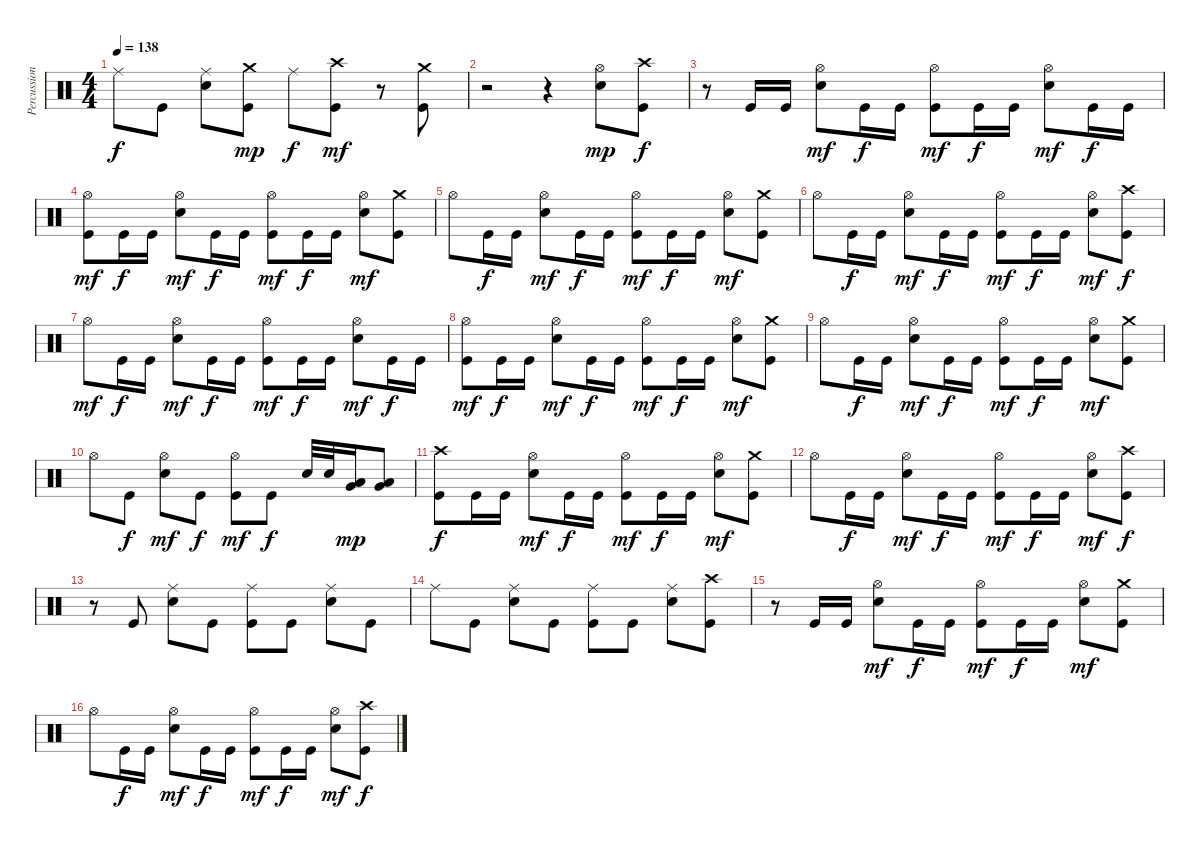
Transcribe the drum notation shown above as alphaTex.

\track ("Percussions" "Percussion") {instrument percussion}
\staff {score}
\articulation defaults
\ts (4 4)
\tempo 138
\clef neutral
\ks c "Ride (middle)".8{dy f} "Kick (hit)".8
("Electric Snare (hit)" "Ride (middle)").8 ("Kick (hit)" "Crash medium (hit)").8{dy mp} "Ride (middle)".8{dy f} ("Kick (hit)" "Crash high (hit)").8{dy mf} r.8 ("Kick (hit)" "Crash medium (hit)").8 |
r.2 r.4 ("Electric Snare (hit)" "Hi-Hat (open)").8{dy mp} ("Kick (hit)" "Crash high (hit)").8{dy f} |
r.8 "Kick (hit)".16 "Kick (hit)".16 ("Electric Snare (hit)" "Hi-Hat (open)").8{dy mf} "Kick (hit)".16{dy f} "Kick (hit)".16 ("Kick (hit)" "Hi-Hat (open)").8{dy mf} "Kick (hit)".16{dy f} "Kick (hit)".16 ("Electric Snare (hit)" "Hi-Hat (open)").8{dy mf} "Kick (hit)".16{dy f} "Kick (hit)".16 |
("Kick (hit)" "Hi-Hat (open)").8{dy mf} "Kick (hit)".16{dy f} "Kick (hit)".16 ("Electric Snare (hit)" "Hi-Hat (open)").8{dy mf} "Kick (hit)".16{dy f} "Kick (hit)".16 ("Kick (hit)" "Hi-Hat (open)").8{dy mf} "Kick (hit)".16{dy f} "Kick (hit)".16 ("Electric Snare (hit)" "Hi-Hat (open)").8{dy mf} ("Kick (hit)" "Crash medium (hit)").8 |
"Hi-Hat (open)".8 "Kick (hit)".16{dy f} "Kick (hit)".16 ("Electric Snare (hit)" "Hi-Hat (open)").8{dy mf} "Kick (hit)".16{dy f} "Kick (hit)".16 ("Kick (hit)" "Hi-Hat (open)").8{dy mf} "Kick (hit)".16{dy f} "Kick (hit)".16 ("Electric Snare (hit)" "Hi-Hat (open)").8{dy mf} ("Kick (hit)" "Crash medium (hit)").8 |
"Hi-Hat (open)".8 "Kick (hit)".16{dy f} "Kick (hit)".16 ("Electric Snare (hit)" "Hi-Hat (open)").8{dy mf} "Kick (hit)".16{dy f} "Kick (hit)".16 ("Kick (hit)" "Hi-Hat (open)").8{dy mf} "Kick (hit)".16{dy f} "Kick (hit)".16 ("Electric Snare (hit)" "Hi-Hat (open)").8{dy mf} ("Kick (hit)" "Crash high (hit)").8{dy f} |
"Hi-Hat (open)".8{dy mf} "Kick (hit)".16{dy f} "Kick (hit)".16 ("Electric Snare (hit)" "Hi-Hat (open)").8{dy mf} "Kick (hit)".16{dy f} "Kick (hit)".16 ("Kick (hit)" "Hi-Hat (open)").8{dy mf} "Kick (hit)".16{dy f} "Kick (hit)".16 ("Electric Snare (hit)" "Hi-Hat (open)").8{dy mf} "Kick (hit)".16{dy f} "Kick (hit)".16 |
("Kick (hit)" "Hi-Hat (open)").8{dy mf} "Kick (hit)".16{dy f} "Kick (hit)".16 ("Electric Snare (hit)" "Hi-Hat (open)").8{dy mf} "Kick (hit)".16{dy f} "Kick (hit)".16 ("Kick (hit)" "Hi-Hat (open)").8{dy mf} "Kick (hit)".16{dy f} "Kick (hit)".16 ("Electric Snare (hit)" "Hi-Hat (open)").8{dy mf} ("Kick (hit)" "Crash medium (hit)").8 |
"Hi-Hat (open)".8 "Kick (hit)".16{dy f} "Kick (hit)".16 ("Electric Snare (hit)" "Hi-Hat (open)").8{dy mf} "Kick (hit)".16{dy f} "Kick (hit)".16 ("Kick (hit)" "Hi-Hat (open)").8{dy mf} "Kick (hit)".16{dy f} "Kick (hit)".16 ("Electric Snare (hit)" "Hi-Hat (open)").8{dy mf} ("Kick (hit)" "Crash medium (hit)").8 |
"Hi-Hat (open)".8 "Kick (hit)".8{dy f} ("Electric Snare (hit)" "Hi-Hat (open)").8{dy mf} "Kick (hit)".8{dy f} ("Kick (hit)" "Hi-Hat (open)").8{dy mf} "Kick (hit)".8{dy f} "Electric Snare (hit)".32 "Electric Snare (hit)".32 ("Low Tom (hit)" "Very Low Tom (hit)").16{dy mp} ("Very Low Tom (hit)" "Low Tom (hit)").8 |
("Kick (hit)" "Crash high (hit)").8{dy f} "Kick (hit)".16 "Kick (hit)".16 ("Electric Snare (hit)" "Hi-Hat (open)").8{dy mf} "Kick (hit)".16{dy f} "Kick (hit)".16 ("Kick (hit)" "Hi-Hat (open)").8{dy mf} "Kick (hit)".16{dy f} "Kick (hit)".16 ("Electric Snare (hit)" "Hi-Hat (open)").8{dy mf} ("Kick (hit)" "Crash medium (hit)").8 |
"Hi-Hat (open)".8 "Kick (hit)".16{dy f} "Kick (hit)".16 ("Electric Snare (hit)" "Hi-Hat (open)").8{dy mf} "Kick (hit)".16{dy f} "Kick (hit)".16 ("Kick (hit)" "Hi-Hat (open)").8{dy mf} "Kick (hit)".16{dy f} "Kick (hit)".16 ("Electric Snare (hit)" "Hi-Hat (open)").8{dy mf} ("Kick (hit)" "Crash high (hit)").8{dy f} |
r.8 "Kick (hit)".8 ("Electric Snare (hit)" "Ride (middle)").8 "Kick (hit)".8 ("Kick (hit)" "Ride (middle)").8 "Kick (hit)".8 ("Electric Snare (hit)" "Ride (middle)").8 "Kick (hit)".8 |
"Ride (middle)".8 "Kick (hit)".8 ("Electric Snare (hit)" "Ride (middle)").8 "Kick (hit)".8 ("Kick (hit)" "Ride (middle)").8 "Kick (hit)".8 ("Electric Snare (hit)" "Ride (middle)").8 ("Kick (hit)" "Crash high (hit)").8 |
r.8 "Kick (hit)".16 "Kick (hit)".16 ("Electric Snare (hit)" "Hi-Hat (open)").8{dy mf} "Kick (hit)".16{dy f} "Kick (hit)".16 ("Kick (hit)" "Hi-Hat (open)").8{dy mf} "Kick (hit)".16{dy f} "Kick (hit)".16 ("Electric Snare (hit)" "Hi-Hat (open)").8{dy mf} ("Kick (hit)" "Crash medium (hit)").8 |
"Hi-Hat (open)".8 "Kick (hit)".16{dy f} "Kick (hit)".16 ("Electric Snare (hit)" "Hi-Hat (open)").8{dy mf} "Kick (hit)".16{dy f} "Kick (hit)".16 ("Kick (hit)" "Hi-Hat (open)").8{dy mf} "Kick (hit)".16{dy f} "Kick (hit)".16 ("Electric Snare (hit)" "Hi-Hat (open)").8{dy mf} ("Kick (hit)" "Crash high (hit)").8{dy f}
